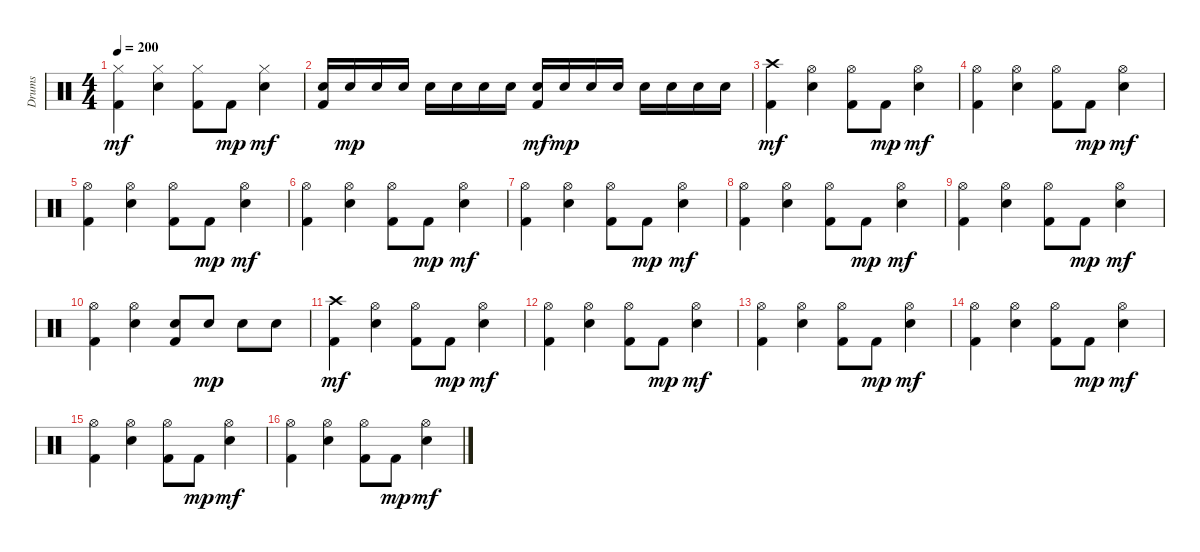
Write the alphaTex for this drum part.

\track ("Drums" "Drums") {instrument percussion}
\staff {score}
\articulation defaults
\ts (4 4)
\tempo 200
\clef neutral
\ks c
("Hi-Hat (closed)" "Kick (hit) 2").4{dy mf} ("Snare (hit) 2" "Hi-Hat (closed)").4 ("Hi-Hat (closed)" "Kick (hit) 2").8 "Kick (hit) 2".8{dy mp} ("Snare (hit) 2" "Hi-Hat (closed)").4{dy mf} |
("Snare (hit) 2" "Kick (hit) 2").16 "Snare (hit) 2".16{dy mp} "Snare (hit) 2".16 "Snare (hit) 2".16 "Snare (hit) 2".16 "Snare (hit) 2".16 "Snare (hit) 2".16 "Snare (hit) 2".16 ("Snare (hit) 2" "Kick (hit) 2").16{dy mf} "Snare (hit) 2".16{dy mp} "Snare (hit) 2".16 "Snare (hit) 2".16 "Snare (hit) 2".16 "Snare (hit) 2".16 "Snare (hit) 2".16 "Snare (hit) 2".16 |
("Crash high (hit)" "Kick (hit) 2").4{dy mf} ("Snare (hit) 2" "Hi-Hat (open)").4 ("Hi-Hat (open)" "Kick (hit) 2").8 "Kick (hit) 2".8{dy mp} ("Snare (hit) 2" "Hi-Hat (open)").4{dy mf} |
("Hi-Hat (open)" "Kick (hit) 2").4 ("Snare (hit) 2" "Hi-Hat (open)").4 ("Hi-Hat (open)" "Kick (hit) 2").8 "Kick (hit) 2".8{dy mp} ("Snare (hit) 2" "Hi-Hat (open)").4{dy mf} |
("Hi-Hat (open)" "Kick (hit) 2").4 ("Snare (hit) 2" "Hi-Hat (open)").4 ("Hi-Hat (open)" "Kick (hit) 2").8 "Kick (hit) 2".8{dy mp} ("Snare (hit) 2" "Hi-Hat (open)").4{dy mf} |
("Hi-Hat (open)" "Kick (hit) 2").4 ("Snare (hit) 2" "Hi-Hat (open)").4 ("Hi-Hat (open)" "Kick (hit) 2").8 "Kick (hit) 2".8{dy mp} ("Snare (hit) 2" "Hi-Hat (open)").4{dy mf} |
("Hi-Hat (open)" "Kick (hit) 2").4 ("Snare (hit) 2" "Hi-Hat (open)").4 ("Hi-Hat (open)" "Kick (hit) 2").8 "Kick (hit) 2".8{dy mp} ("Snare (hit) 2" "Hi-Hat (open)").4{dy mf} |
("Hi-Hat (open)" "Kick (hit) 2").4 ("Snare (hit) 2" "Hi-Hat (open)").4 ("Hi-Hat (open)" "Kick (hit) 2").8 "Kick (hit) 2".8{dy mp} ("Snare (hit) 2" "Hi-Hat (open)").4{dy mf} |
("Hi-Hat (open)" "Kick (hit) 2").4 ("Snare (hit) 2" "Hi-Hat (open)").4 ("Hi-Hat (open)" "Kick (hit) 2").8 "Kick (hit) 2".8{dy mp} ("Snare (hit) 2" "Hi-Hat (open)").4{dy mf} |
("Hi-Hat (open)" "Kick (hit) 2").4 ("Snare (hit) 2" "Hi-Hat (open)").4 ("Snare (hit) 2" "Kick (hit) 2").8 "Snare (hit) 2".8{dy mp} "Snare (hit) 2".8 "Snare (hit) 2".8 |
("Crash high (hit)" "Kick (hit) 2").4{dy mf} ("Snare (hit) 2" "Hi-Hat (open)").4 ("Hi-Hat (open)" "Kick (hit) 2").8 "Kick (hit) 2".8{dy mp} ("Snare (hit) 2" "Hi-Hat (open)").4{dy mf} |
("Hi-Hat (open)" "Kick (hit) 2").4 ("Snare (hit) 2" "Hi-Hat (open)").4 ("Hi-Hat (open)" "Kick (hit) 2").8 "Kick (hit) 2".8{dy mp} ("Snare (hit) 2" "Hi-Hat (open)").4{dy mf} |
("Hi-Hat (open)" "Kick (hit) 2").4 ("Snare (hit) 2" "Hi-Hat (open)").4 ("Hi-Hat (open)" "Kick (hit) 2").8 "Kick (hit) 2".8{dy mp} ("Snare (hit) 2" "Hi-Hat (open)").4{dy mf} |
("Hi-Hat (open)" "Kick (hit) 2").4 ("Snare (hit) 2" "Hi-Hat (open)").4 ("Hi-Hat (open)" "Kick (hit) 2").8 "Kick (hit) 2".8{dy mp} ("Snare (hit) 2" "Hi-Hat (open)").4{dy mf} |
("Hi-Hat (open)" "Kick (hit) 2").4 ("Snare (hit) 2" "Hi-Hat (open)").4 ("Hi-Hat (open)" "Kick (hit) 2").8 "Kick (hit) 2".8{dy mp} ("Snare (hit) 2" "Hi-Hat (open)").4{dy mf} |
("Hi-Hat (open)" "Kick (hit) 2").4 ("Snare (hit) 2" "Hi-Hat (open)").4 ("Hi-Hat (open)" "Kick (hit) 2").8 "Kick (hit) 2".8{dy mp} ("Snare (hit) 2" "Hi-Hat (open)").4{dy mf}
